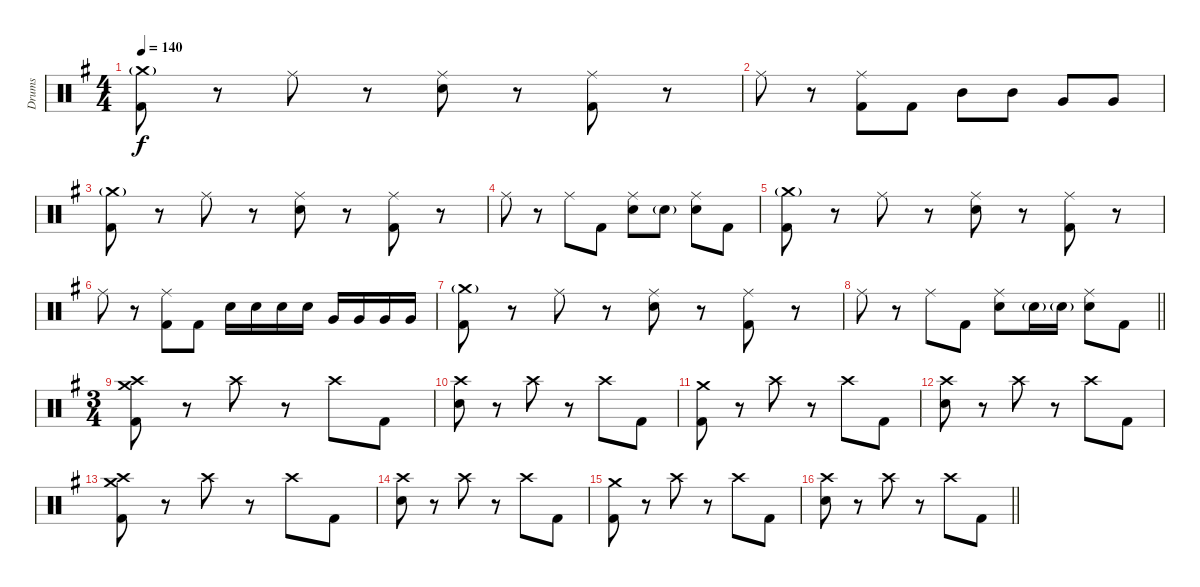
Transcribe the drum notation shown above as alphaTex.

\track ("Drums" "Drums") {instrument percussion}
\staff {score}
\articulation defaults
\ts (4 4)
\tempo 140
\clef neutral
\ks eminor
("Crash medium (hit)"{g} "Kick (hit) 2").8{dy f} r.8 "Ride (middle)".8 r.8 ("Ride (middle)" "Snare (hit) 2").8 r.8 ("Ride (middle)" "Kick (hit) 2").8 r.8 |
"Ride (middle)".8 r.8 ("Ride (middle)" "Kick (hit) 2").8 "Kick (hit) 2".8 "Mid Tom (hit)".8 "Mid Tom (hit)".8 "Very Low Tom (hit)".8 "Very Low Tom (hit)".8 |
("Crash medium (hit)"{g} "Kick (hit) 2").8 r.8 "Ride (middle)".8 r.8 ("Ride (middle)" "Snare (hit) 2").8 r.8 ("Ride (middle)" "Kick (hit) 2").8 r.8 |
"Ride (middle)".8 r.8 "Ride (middle)".8 "Kick (hit) 2".8 ("Ride (middle)" "Snare (hit) 2").8 "Snare (hit) 2"{g}.8 ("Ride (middle)" "Snare (hit) 2").8 "Kick (hit) 2".8 |
("Crash medium (hit)"{g} "Kick (hit) 2").8 r.8 "Ride (middle)".8 r.8 ("Ride (middle)" "Snare (hit) 2").8 r.8 ("Ride (middle)" "Kick (hit) 2").8 r.8 |
"Ride (middle)".8 r.8 ("Ride (middle)" "Kick (hit) 2").8 "Kick (hit) 2".8 "Snare (hit) 2".16 "Snare (hit) 2".16 "Snare (hit) 2".16 "Snare (hit) 2".16 "Very Low Tom (hit)".16 "Very Low Tom (hit)".16 "Very Low Tom (hit)".16 "Very Low Tom (hit)".16 |
("Crash medium (hit)"{g} "Kick (hit) 2").8 r.8 "Ride (middle)".8 r.8 ("Ride (middle)" "Snare (hit) 2").8 r.8 ("Ride (middle)" "Kick (hit) 2").8 r.8 |
\barLineRight lightlight "Ride (middle)".8
r.8 "Ride (middle)".8 "Kick (hit) 2".8 ("Ride (middle)" "Snare (hit) 2").8 "Snare (hit) 2"{g}.16 "Snare (hit) 2"{g}.16 ("Ride (middle)" "Snare (hit) 2").8 "Kick (hit) 2".8 |
\ts (3 4)
("Crash medium (hit)" "Crash high (hit)" "Kick (hit) 2").8 r.8 "Crash high (hit)".8 r.8 "Crash high (hit)".8 "Kick (hit) 2".8 |
("Crash high (hit)" "Snare (hit) 2").8 r.8 "Crash high (hit)".8 r.8 "Crash high (hit)".8 "Kick (hit) 2".8 |
("Crash medium (hit)" "Kick (hit) 2").8 r.8 "Crash high (hit)".8 r.8 "Crash high (hit)".8 "Kick (hit) 2".8 |
("Crash high (hit)" "Snare (hit) 2").8 r.8 "Crash high (hit)".8 r.8 "Crash high (hit)".8 "Kick (hit) 2".8 |
("Crash medium (hit)" "Crash high (hit)" "Kick (hit) 2").8 r.8 "Crash high (hit)".8 r.8 "Crash high (hit)".8 "Kick (hit) 2".8 |
("Crash high (hit)" "Snare (hit) 2").8 r.8 "Crash high (hit)".8 r.8 "Crash high (hit)".8 "Kick (hit) 2".8 |
("Crash medium (hit)" "Kick (hit) 2").8 r.8 "Crash high (hit)".8 r.8 "Crash high (hit)".8 "Kick (hit) 2".8 |
\barLineRight lightlight
("Crash high (hit)" "Snare (hit) 2").8 r.8 "Crash high (hit)".8 r.8 "Crash high (hit)".8 "Kick (hit) 2".8
